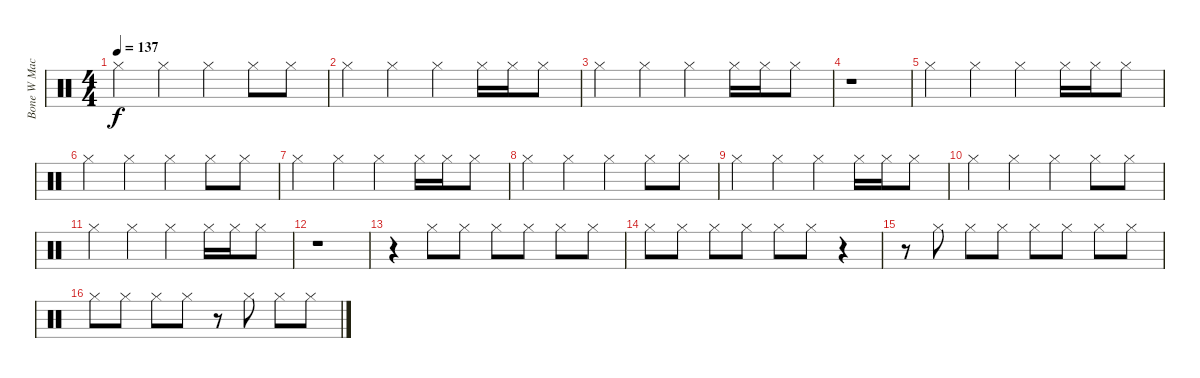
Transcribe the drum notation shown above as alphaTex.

\track ("Bone W Machine Cimbals" "Bone W Mac") {instrument percussion}
\staff {score}
\articulation defaults
\ts (4 4)
\tempo 137
\clef neutral
\ks c "Hi-Hat (closed)".4{dy f} "Hi-Hat (closed)".4 "Hi-Hat (closed)".4 "Hi-Hat (closed)".8 "Hi-Hat (closed)".8
|
"Hi-Hat (closed)".4 "Hi-Hat (closed)".4 "Hi-Hat (closed)".4 "Hi-Hat (closed)".16 "Hi-Hat (closed)".16 "Hi-Hat (closed)".8 |
"Hi-Hat (closed)".4 "Hi-Hat (closed)".4 "Hi-Hat (closed)".4 "Hi-Hat (closed)".16 "Hi-Hat (closed)".16 "Hi-Hat (closed)".8 |
r.1 |
"Hi-Hat (closed)".4 "Hi-Hat (closed)".4 "Hi-Hat (closed)".4 "Hi-Hat (closed)".16 "Hi-Hat (closed)".16 "Hi-Hat (closed)".8 |
"Hi-Hat (closed)".4 "Hi-Hat (closed)".4 "Hi-Hat (closed)".4 "Hi-Hat (closed)".8 "Hi-Hat (closed)".8 |
"Hi-Hat (closed)".4 "Hi-Hat (closed)".4 "Hi-Hat (closed)".4 "Hi-Hat (closed)".16 "Hi-Hat (closed)".16 "Hi-Hat (closed)".8 |
"Hi-Hat (closed)".4 "Hi-Hat (closed)".4 "Hi-Hat (closed)".4 "Hi-Hat (closed)".8 "Hi-Hat (closed)".8 |
"Hi-Hat (closed)".4 "Hi-Hat (closed)".4 "Hi-Hat (closed)".4 "Hi-Hat (closed)".16 "Hi-Hat (closed)".16 "Hi-Hat (closed)".8 |
"Hi-Hat (closed)".4 "Hi-Hat (closed)".4 "Hi-Hat (closed)".4 "Hi-Hat (closed)".8 "Hi-Hat (closed)".8 |
"Hi-Hat (closed)".4 "Hi-Hat (closed)".4 "Hi-Hat (closed)".4 "Hi-Hat (closed)".16 "Hi-Hat (closed)".16 "Hi-Hat (closed)".8 |
r.1 |
r.4 "Hi-Hat (closed)".8 "Hi-Hat (closed)".8 "Hi-Hat (closed)".8 "Hi-Hat (closed)".8 "Hi-Hat (closed)".8 "Hi-Hat (closed)".8 |
"Hi-Hat (closed)".8 "Hi-Hat (closed)".8 "Hi-Hat (closed)".8 "Hi-Hat (closed)".8 "Hi-Hat (closed)".8 "Hi-Hat (closed)".8 r.4 |
r.8 "Hi-Hat (closed)".8 "Hi-Hat (closed)".8 "Hi-Hat (closed)".8 "Hi-Hat (closed)".8 "Hi-Hat (closed)".8 "Hi-Hat (closed)".8 "Hi-Hat (closed)".8 |
"Hi-Hat (closed)".8 "Hi-Hat (closed)".8 "Hi-Hat (closed)".8 "Hi-Hat (closed)".8 r.8 "Hi-Hat (closed)".8 "Hi-Hat (closed)".8 "Hi-Hat (closed)".8
